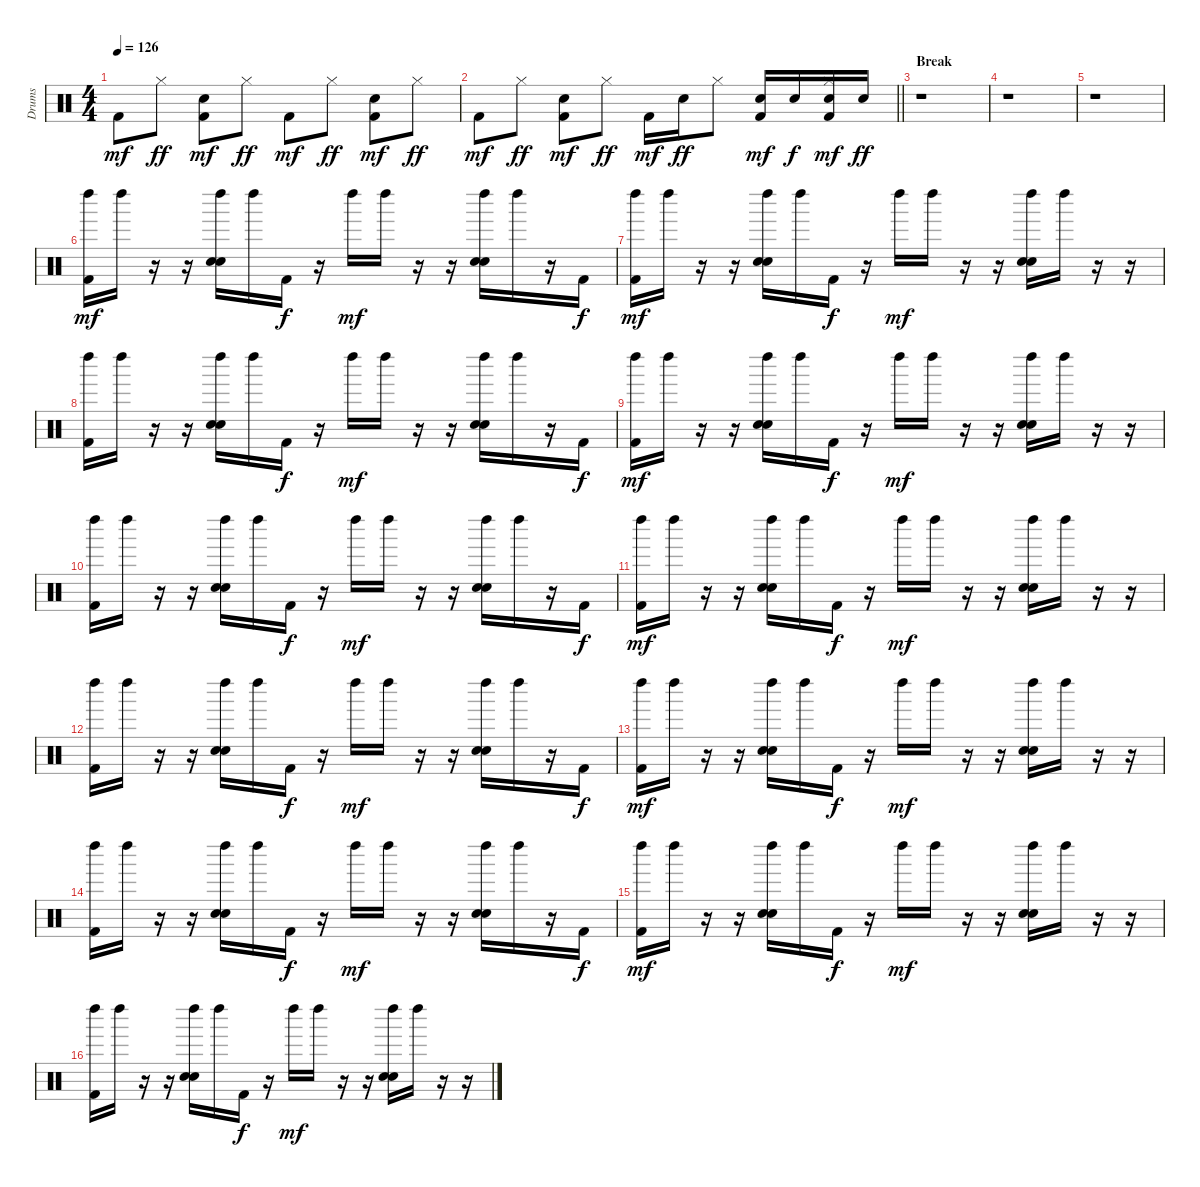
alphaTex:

\track ("Drums" "Drums") {instrument percussion}
\staff {score}
\articulation defaults
\ts (4 4)
\tempo 126
\clef neutral
\ks c "Kick (hit) 2".8{dy mf} "Hi-Hat (closed)".8{dy ff}
("Electric Snare (hit)" "Kick (hit) 2").8{dy mf} "Hi-Hat (closed)".8{dy ff} "Kick (hit) 2".8{dy mf} "Hi-Hat (closed)".8{dy ff} ("Electric Snare (hit)" "Kick (hit) 2").8{dy mf} "Hi-Hat (closed)".8{dy ff} |
\barLineRight lightlight "Kick (hit) 2".8{dy mf} "Hi-Hat (closed)".8{dy ff}
("Electric Snare (hit)" "Kick (hit) 2").8{dy mf} "Hi-Hat (closed)".8{dy ff} "Kick (hit) 2".16{dy mf} "Electric Snare (hit)".16{dy ff} "Hi-Hat (closed)".8 ("Electric Snare (hit)" "Kick (hit) 2").16{dy mf} "Electric Snare (hit)".16{dy f} ("Hi-Hat (closed)" "Electric Snare (hit)" "Kick (hit) 2").16{dy mf} "Electric Snare (hit)".16{dy ff} |
\section ("" "Break")
r.1 |
r.1 |
r.1 |
("Left Maraca (hit)" "Kick (hit) 2").16{dy mf} "Left Maraca (hit)".16 r.16 r.16 ("Left Maraca (hit)" "Snare (hit) 2" "Hand Clap (hit)").16 "Left Maraca (hit)".16 "Kick (hit) 2".16{dy f} r.16 "Left Maraca (hit)".16{dy mf} "Left Maraca (hit)".16 r.16 r.16 ("Left Maraca (hit)" "Snare (hit) 2" "Hand Clap (hit)").16 "Left Maraca (hit)".16 r.16 "Kick (hit) 2".16{dy f} |
("Left Maraca (hit)" "Kick (hit) 2").16{dy mf} "Left Maraca (hit)".16 r.16 r.16 ("Left Maraca (hit)" "Snare (hit) 2" "Hand Clap (hit)").16 "Left Maraca (hit)".16 "Kick (hit) 2".16{dy f} r.16 "Left Maraca (hit)".16{dy mf} "Left Maraca (hit)".16 r.16 r.16 ("Left Maraca (hit)" "Snare (hit) 2" "Hand Clap (hit)").16 "Left Maraca (hit)".16 r.16 r.16 |
("Left Maraca (hit)" "Kick (hit) 2").16 "Left Maraca (hit)".16 r.16 r.16 ("Left Maraca (hit)" "Snare (hit) 2" "Hand Clap (hit)").16 "Left Maraca (hit)".16 "Kick (hit) 2".16{dy f} r.16 "Left Maraca (hit)".16{dy mf} "Left Maraca (hit)".16 r.16 r.16 ("Left Maraca (hit)" "Snare (hit) 2" "Hand Clap (hit)").16 "Left Maraca (hit)".16 r.16 "Kick (hit) 2".16{dy f} |
("Left Maraca (hit)" "Kick (hit) 2").16{dy mf} "Left Maraca (hit)".16 r.16 r.16 ("Left Maraca (hit)" "Snare (hit) 2" "Hand Clap (hit)").16 "Left Maraca (hit)".16 "Kick (hit) 2".16{dy f} r.16 "Left Maraca (hit)".16{dy mf} "Left Maraca (hit)".16 r.16 r.16 ("Left Maraca (hit)" "Snare (hit) 2" "Hand Clap (hit)").16 "Left Maraca (hit)".16 r.16 r.16 |
("Left Maraca (hit)" "Kick (hit) 2").16 "Left Maraca (hit)".16 r.16 r.16 ("Left Maraca (hit)" "Snare (hit) 2" "Hand Clap (hit)").16 "Left Maraca (hit)".16 "Kick (hit) 2".16{dy f} r.16 "Left Maraca (hit)".16{dy mf} "Left Maraca (hit)".16 r.16 r.16 ("Left Maraca (hit)" "Snare (hit) 2" "Hand Clap (hit)").16 "Left Maraca (hit)".16 r.16 "Kick (hit) 2".16{dy f} |
("Left Maraca (hit)" "Kick (hit) 2").16{dy mf} "Left Maraca (hit)".16 r.16 r.16 ("Left Maraca (hit)" "Snare (hit) 2" "Hand Clap (hit)").16 "Left Maraca (hit)".16 "Kick (hit) 2".16{dy f} r.16 "Left Maraca (hit)".16{dy mf} "Left Maraca (hit)".16 r.16 r.16 ("Left Maraca (hit)" "Snare (hit) 2" "Hand Clap (hit)").16 "Left Maraca (hit)".16 r.16 r.16 |
("Left Maraca (hit)" "Kick (hit) 2").16 "Left Maraca (hit)".16 r.16 r.16 ("Left Maraca (hit)" "Snare (hit) 2" "Hand Clap (hit)").16 "Left Maraca (hit)".16 "Kick (hit) 2".16{dy f} r.16 "Left Maraca (hit)".16{dy mf} "Left Maraca (hit)".16 r.16 r.16 ("Left Maraca (hit)" "Snare (hit) 2" "Hand Clap (hit)").16 "Left Maraca (hit)".16 r.16 "Kick (hit) 2".16{dy f} |
("Left Maraca (hit)" "Kick (hit) 2").16{dy mf} "Left Maraca (hit)".16 r.16 r.16 ("Left Maraca (hit)" "Snare (hit) 2" "Hand Clap (hit)").16 "Left Maraca (hit)".16 "Kick (hit) 2".16{dy f} r.16 "Left Maraca (hit)".16{dy mf} "Left Maraca (hit)".16 r.16 r.16 ("Left Maraca (hit)" "Snare (hit) 2" "Hand Clap (hit)").16 "Left Maraca (hit)".16 r.16 r.16 |
("Left Maraca (hit)" "Kick (hit) 2").16 "Left Maraca (hit)".16 r.16 r.16 ("Left Maraca (hit)" "Snare (hit) 2" "Hand Clap (hit)").16 "Left Maraca (hit)".16 "Kick (hit) 2".16{dy f} r.16 "Left Maraca (hit)".16{dy mf} "Left Maraca (hit)".16 r.16 r.16 ("Left Maraca (hit)" "Snare (hit) 2" "Hand Clap (hit)").16 "Left Maraca (hit)".16 r.16 "Kick (hit) 2".16{dy f} |
("Left Maraca (hit)" "Kick (hit) 2").16{dy mf} "Left Maraca (hit)".16 r.16 r.16 ("Left Maraca (hit)" "Snare (hit) 2" "Hand Clap (hit)").16 "Left Maraca (hit)".16 "Kick (hit) 2".16{dy f} r.16 "Left Maraca (hit)".16{dy mf} "Left Maraca (hit)".16 r.16 r.16 ("Left Maraca (hit)" "Snare (hit) 2" "Hand Clap (hit)").16 "Left Maraca (hit)".16 r.16 r.16 |
("Left Maraca (hit)" "Kick (hit) 2").16 "Left Maraca (hit)".16 r.16 r.16 ("Left Maraca (hit)" "Snare (hit) 2" "Hand Clap (hit)").16 "Left Maraca (hit)".16 "Kick (hit) 2".16{dy f} r.16 "Left Maraca (hit)".16{dy mf} "Left Maraca (hit)".16 r.16 r.16 ("Left Maraca (hit)" "Snare (hit) 2" "Hand Clap (hit)").16 "Left Maraca (hit)".16 r.16 r.16
